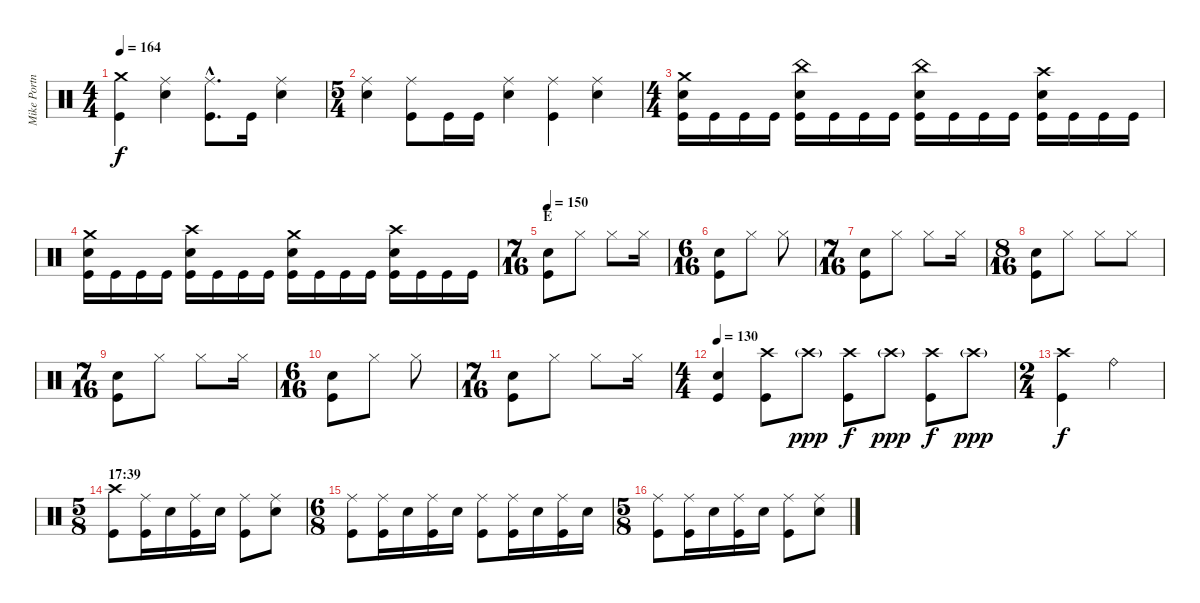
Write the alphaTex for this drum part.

\track ("Mike Portnoy" "Mike Portn") {instrument percussion}
\staff {score}
\articulation defaults
\ts (4 4)
\tempo 164
\clef neutral
\ks c
("Crash medium (hit)" "Kick (hit)").4{dy f} ("Ride (middle)" "Electric Snare (hit)").4 ("Ride (middle)"{hac} "Kick (hit)"{hac}).8{d} "Kick (hit)".16 ("Ride (middle)" "Electric Snare (hit)").4 |
\ts (5 4)
("Ride (middle)" "Electric Snare (hit)").4 ("Ride (middle)" "Kick (hit)").8 "Kick (hit)".16 "Kick (hit)".16 ("Ride (middle)" "Electric Snare (hit)").4 ("Ride (middle)" "Kick (hit)").4 ("Ride (middle)" "Electric Snare (hit)").4 |
\ts (4 4)
("Crash medium (hit)" "Electric Snare (hit)" "Kick (hit)").16 "Kick (hit)".16 "Kick (hit)".16 "Kick (hit)".16 ("China (hit)" "Electric Snare (hit)" "Kick (hit)").16 "Kick (hit)".16 "Kick (hit)".16 "Kick (hit)".16 ("China (hit)" "Electric Snare (hit)" "Kick (hit)").16 "Kick (hit)".16 "Kick (hit)".16 "Kick (hit)".16 ("Crash high (hit)" "Electric Snare (hit)" "Kick (hit)").16 "Kick (hit)".16 "Kick (hit)".16 "Kick (hit)".16 |
("Crash medium (hit)" "Electric Snare (hit)" "Kick (hit)").16 "Kick (hit)".16 "Kick (hit)".16 "Kick (hit)".16 ("Crash high (hit)" "Electric Snare (hit)" "Kick (hit)").16 "Kick (hit)".16 "Kick (hit)".16 "Kick (hit)".16 ("Crash medium (hit)" "Electric Snare (hit)" "Kick (hit)").16 "Kick (hit)".16 "Kick (hit)".16 "Kick (hit)".16 ("Crash high (hit)" "Electric Snare (hit)" "Kick (hit)").16 "Kick (hit)".16 "Kick (hit)".16 "Kick (hit)".16 |
\ts (7 16)
\section ("" "E")
\tempo 150
("Electric Snare (hit)" "Kick (hit)").8 "Hi-Hat (closed)".8 "Hi-Hat (closed)".8 "Hi-Hat (closed)".16 |
\ts (6 16)
("Electric Snare (hit)" "Kick (hit)").8 "Hi-Hat (closed)".8 "Hi-Hat (closed)".8 |
\ts (7 16)
("Electric Snare (hit)" "Kick (hit)").8 "Hi-Hat (closed)".8 "Hi-Hat (closed)".8 "Hi-Hat (closed)".16 |
\ts (8 16)
("Electric Snare (hit)" "Kick (hit)").8 "Hi-Hat (closed)".8 "Hi-Hat (closed)".8 "Hi-Hat (closed)".8 |
\ts (7 16)
("Electric Snare (hit)" "Kick (hit)").8 "Hi-Hat (closed)".8 "Hi-Hat (closed)".8 "Hi-Hat (closed)".16 |
\ts (6 16)
("Electric Snare (hit)" "Kick (hit)").8 "Hi-Hat (closed)".8 "Hi-Hat (closed)".8 |
\ts (7 16)
("Electric Snare (hit)" "Kick (hit)").8 "Hi-Hat (closed)".8 "Hi-Hat (closed)".8 "Hi-Hat (closed)".16 |
\ts (4 4)
\tempo 130
("Electric Snare (hit)" "Kick (hit)").4 ("Crash high (hit)" "Kick (hit)").8 "Crash high (hit)"{g}.8{dy ppp} ("Crash high (hit)" "Kick (hit)").8{dy f} "Crash high (hit)"{g}.8{dy ppp} ("Crash high (hit)" "Kick (hit)").8{dy f} "Crash high (hit)"{g}.8{dy ppp} |
\ts (2 4)
("Crash high (hit)" "Kick (hit)").4{dy f} "Ride (bell)".4 |
\ts (5 8)
\section ("" "17:39")
("Crash high (hit)" "Kick (hit)").8 ("Ride (middle)" "Kick (hit)").16 "Electric Snare (hit)".16 ("Ride (middle)" "Kick (hit)").16 "Electric Snare (hit)".16 ("Ride (middle)" "Kick (hit)").8 ("Ride (middle)" "Electric Snare (hit)").8 |
\ts (6 8)
("Ride (middle)" "Kick (hit)").8 ("Ride (middle)" "Kick (hit)").16 "Electric Snare (hit)".16 ("Ride (middle)" "Kick (hit)").16 "Electric Snare (hit)".16 ("Ride (middle)" "Kick (hit)").8 ("Ride (middle)" "Kick (hit)").16 "Electric Snare (hit)".16 ("Ride (middle)" "Kick (hit)").16 "Electric Snare (hit)".16 |
\ts (5 8)
("Ride (middle)" "Kick (hit)").8 ("Ride (middle)" "Kick (hit)").16 "Electric Snare (hit)".16 ("Ride (middle)" "Kick (hit)").16 "Electric Snare (hit)".16 ("Ride (middle)" "Kick (hit)").8 ("Ride (middle)" "Electric Snare (hit)").8
